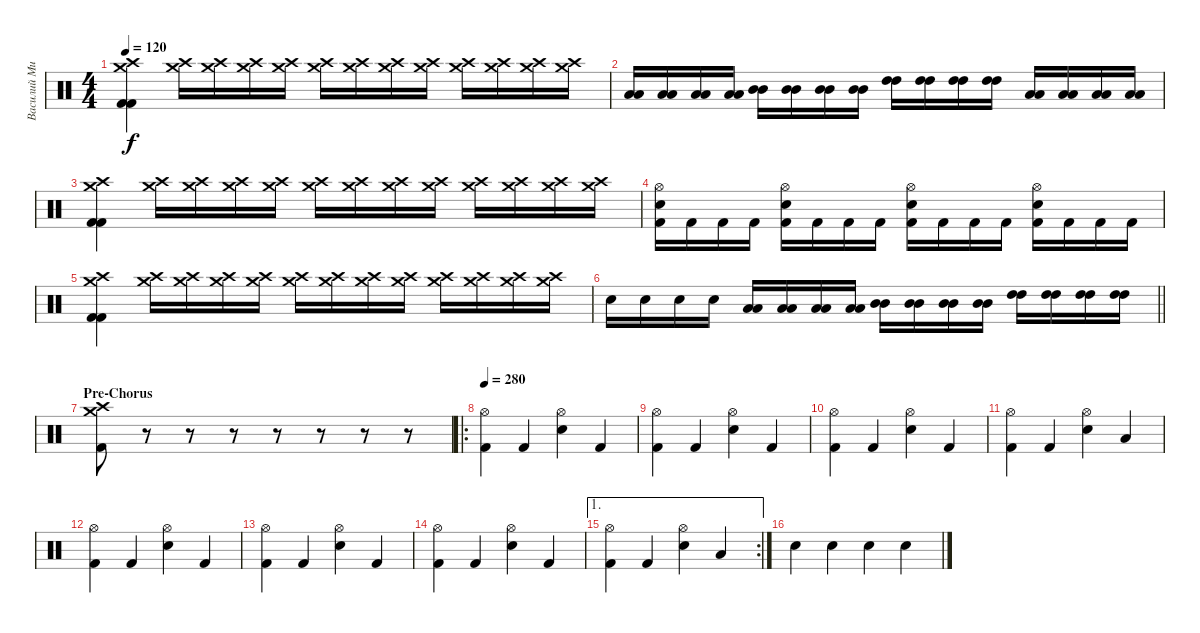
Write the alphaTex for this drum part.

\track ("Василий Михалыч-ударные" "Василий Ми") {instrument percussion}
\staff {score}
\articulation defaults
\ts (4 4)
\tempo 120
\clef neutral
\ks c
("Kick (hit) 2" "Kick (hit) 2" "Crash high (hit)" "Crash medium (hit)").4{dy f} ("Crash high (hit)" "Crash medium (hit)").16 ("Crash high (hit)" "Crash medium (hit)").16 ("Crash high (hit)" "Crash medium (hit)").16 ("Crash high (hit)" "Crash medium (hit)").16 ("Crash high (hit)" "Crash medium (hit)").16 ("Crash high (hit)" "Crash medium (hit)").16 ("Crash high (hit)" "Crash medium (hit)").16 ("Crash high (hit)" "Crash medium (hit)").16 ("Crash high (hit)" "Crash medium (hit)").16 ("Crash high (hit)" "Crash medium (hit)").16 ("Crash high (hit)" "Crash medium (hit)").16 ("Crash high (hit)" "Crash medium (hit)").16 |
("Low Tom (hit)" "Low Tom (hit)").16 ("Low Tom (hit)" "Low Tom (hit)").16 ("Low Tom (hit)" "Low Tom (hit)").16 ("Low Tom (hit)" "Low Tom (hit)").16 ("Mid Tom (hit)" "Mid Tom (hit)").16 ("Mid Tom (hit)" "Mid Tom (hit)").16 ("Mid Tom (hit)" "Mid Tom (hit)").16 ("Mid Tom (hit)" "Mid Tom (hit)").16 ("High Tom (hit)" "High Tom (hit)").16 ("High Tom (hit)" "High Tom (hit)").16 ("High Tom (hit)" "High Tom (hit)").16 ("High Tom (hit)" "High Tom (hit)").16 ("Low Tom (hit)" "Low Tom (hit)").16 ("Low Tom (hit)" "Low Tom (hit)").16 ("Low Tom (hit)" "Low Tom (hit)").16 ("Low Tom (hit)" "Low Tom (hit)").16 |
("Kick (hit) 2" "Kick (hit) 2" "Crash high (hit)" "Crash medium (hit)").4 ("Crash high (hit)" "Crash medium (hit)").16 ("Crash high (hit)" "Crash medium (hit)").16 ("Crash high (hit)" "Crash medium (hit)").16 ("Crash high (hit)" "Crash medium (hit)").16 ("Crash high (hit)" "Crash medium (hit)").16 ("Crash high (hit)" "Crash medium (hit)").16 ("Crash high (hit)" "Crash medium (hit)").16 ("Crash high (hit)" "Crash medium (hit)").16 ("Crash high (hit)" "Crash medium (hit)").16 ("Crash high (hit)" "Crash medium (hit)").16 ("Crash high (hit)" "Crash medium (hit)").16 ("Crash high (hit)" "Crash medium (hit)").16 |
("Kick (hit) 2" "Electric Snare (hit)" "Hi-Hat (open)").16 "Kick (hit) 2".16 "Kick (hit) 2".16 "Kick (hit) 2".16 ("Kick (hit) 2" "Electric Snare (hit)" "Hi-Hat (open)").16 "Kick (hit) 2".16 "Kick (hit) 2".16 "Kick (hit) 2".16 ("Kick (hit) 2" "Electric Snare (hit)" "Hi-Hat (open)").16 "Kick (hit) 2".16 "Kick (hit) 2".16 "Kick (hit) 2".16 ("Kick (hit) 2" "Electric Snare (hit)" "Hi-Hat (open)").16 "Kick (hit) 2".16 "Kick (hit) 2".16 "Kick (hit) 2".16 |
("Kick (hit) 2" "Kick (hit) 2" "Crash high (hit)" "Crash medium (hit)").4 ("Crash high (hit)" "Crash medium (hit)").16 ("Crash high (hit)" "Crash medium (hit)").16 ("Crash high (hit)" "Crash medium (hit)").16 ("Crash high (hit)" "Crash medium (hit)").16 ("Crash high (hit)" "Crash medium (hit)").16 ("Crash high (hit)" "Crash medium (hit)").16 ("Crash high (hit)" "Crash medium (hit)").16 ("Crash high (hit)" "Crash medium (hit)").16 ("Crash high (hit)" "Crash medium (hit)").16 ("Crash high (hit)" "Crash medium (hit)").16 ("Crash high (hit)" "Crash medium (hit)").16 ("Crash high (hit)" "Crash medium (hit)").16 |
\barLineRight lightlight "Electric Snare (hit)".16 "Electric Snare (hit)".16 "Electric Snare (hit)".16 "Electric Snare (hit)".16
("Low Tom (hit)" "Low Tom (hit)").16 ("Low Tom (hit)" "Low Tom (hit)").16 ("Low Tom (hit)" "Low Tom (hit)").16 ("Low Tom (hit)" "Low Tom (hit)").16 ("Mid Tom (hit)" "Mid Tom (hit)").16 ("Mid Tom (hit)" "Mid Tom (hit)").16 ("Mid Tom (hit)" "Mid Tom (hit)").16 ("Mid Tom (hit)" "Mid Tom (hit)").16 ("High Tom (hit)" "High Tom (hit)").16 ("High Tom (hit)" "High Tom (hit)").16 ("High Tom (hit)" "High Tom (hit)").16 ("High Tom (hit)" "High Tom (hit)").16 |
\section ("" "Pre-Chorus")
("Kick (hit) 2" "Crash high (hit)" "Crash medium (hit)").8 r.8 r.8 r.8 r.8 r.8 r.8 r.8 |
\ro
\tempo 280
("Kick (hit) 2" "Hi-Hat (open)").4 "Kick (hit) 2".4 ("Snare (hit) 2" "Hi-Hat (open)").4 "Kick (hit) 2".4 |
("Kick (hit) 2" "Hi-Hat (open)").4 "Kick (hit) 2".4 ("Snare (hit) 2" "Hi-Hat (open)").4 "Kick (hit) 2".4 |
("Kick (hit) 2" "Hi-Hat (open)").4 "Kick (hit) 2".4 ("Snare (hit) 2" "Hi-Hat (open)").4 "Kick (hit) 2".4 |
("Kick (hit) 2" "Hi-Hat (open)").4 "Kick (hit) 2".4 ("Snare (hit) 2" "Hi-Hat (open)").4 "Low Tom (hit)".4 |
("Kick (hit) 2" "Hi-Hat (open)").4 "Kick (hit) 2".4 ("Snare (hit) 2" "Hi-Hat (open)").4 "Kick (hit) 2".4 |
("Kick (hit) 2" "Hi-Hat (open)").4 "Kick (hit) 2".4 ("Snare (hit) 2" "Hi-Hat (open)").4 "Kick (hit) 2".4 |
("Kick (hit) 2" "Hi-Hat (open)").4 "Kick (hit) 2".4 ("Snare (hit) 2" "Hi-Hat (open)").4 "Kick (hit) 2".4 |
\ae 1
\rc 2
("Kick (hit) 2" "Hi-Hat (open)").4 "Kick (hit) 2".4 ("Snare (hit) 2" "Hi-Hat (open)").4 "Low Tom (hit)".4 |
"Snare (hit) 2".4 "Snare (hit) 2".4 "Snare (hit) 2".4 "Snare (hit) 2".4
